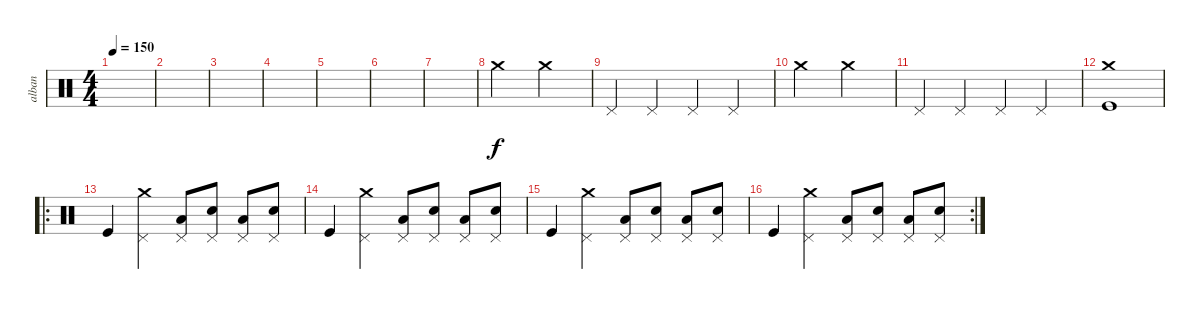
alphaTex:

\track ("alban" "alban") {instrument percussion}
\staff {score}
\articulation defaults
\ts (4 4)
\tempo 150
\clef neutral
\ks c
|
|
|
|
|
|
|
"Crash medium (hit)".2 "Crash medium (hit)".2 |
"Pedal Hi-Hat (hit)".4 "Pedal Hi-Hat (hit)".4 "Pedal Hi-Hat (hit)".4 "Pedal Hi-Hat (hit)".4 |
"Crash medium (hit)".2 "Crash medium (hit)".2 |
"Pedal Hi-Hat (hit)".4 "Pedal Hi-Hat (hit)".4 "Pedal Hi-Hat (hit)".4 "Pedal Hi-Hat (hit)".4 |
("Crash medium (hit)" "Kick (hit)").1 |
\ro "Kick (hit)".4
("Pedal Hi-Hat (hit)" "Crash medium (hit)").4 ("Pedal Hi-Hat (hit)" "Low Floor Tom (hit)").8 ("Pedal Hi-Hat (hit)" "Snare (hit) 2").8 ("Pedal Hi-Hat (hit)" "Low Floor Tom (hit)").8 ("Pedal Hi-Hat (hit)" "Snare (hit) 2").8 |
"Kick (hit)".4 ("Pedal Hi-Hat (hit)" "Crash medium (hit)").4 ("Pedal Hi-Hat (hit)" "Low Floor Tom (hit)").8 ("Pedal Hi-Hat (hit)" "Snare (hit) 2").8 ("Pedal Hi-Hat (hit)" "Low Floor Tom (hit)").8 ("Pedal Hi-Hat (hit)" "Snare (hit) 2").8 |
"Kick (hit)".4 ("Pedal Hi-Hat (hit)" "Crash medium (hit)").4 ("Pedal Hi-Hat (hit)" "Low Floor Tom (hit)").8 ("Pedal Hi-Hat (hit)" "Snare (hit) 2").8 ("Pedal Hi-Hat (hit)" "Low Floor Tom (hit)").8 ("Pedal Hi-Hat (hit)" "Snare (hit) 2").8 |
\rc 2 "Kick (hit)".4
("Pedal Hi-Hat (hit)" "Crash medium (hit)").4 ("Pedal Hi-Hat (hit)" "Low Floor Tom (hit)").8 ("Pedal Hi-Hat (hit)" "Snare (hit) 2").8 ("Pedal Hi-Hat (hit)" "Low Floor Tom (hit)").8 ("Pedal Hi-Hat (hit)" "Snare (hit) 2").8
